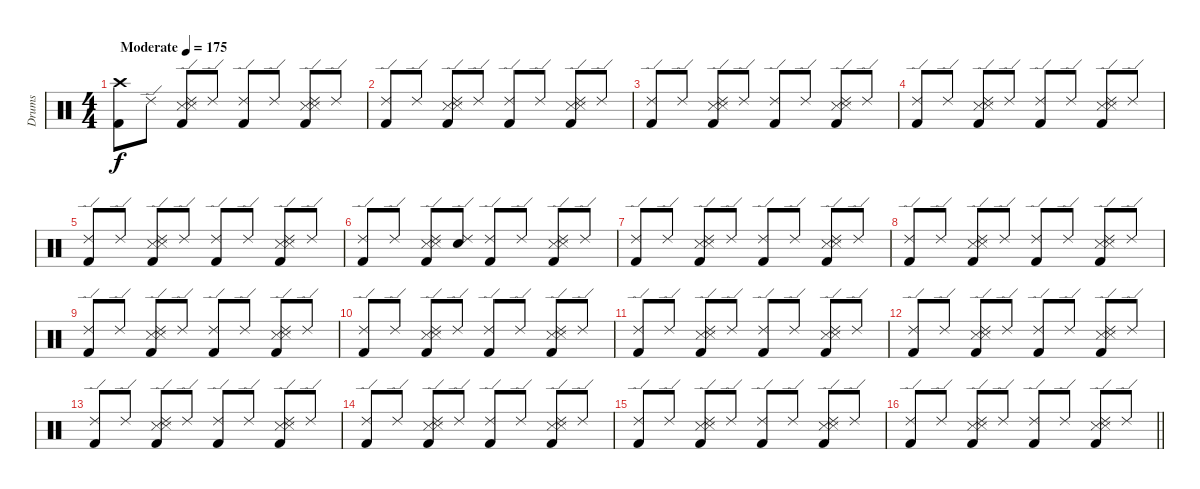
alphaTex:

\track ("Drums" "Drums") {instrument percussion}
\staff {score}
\articulation defaults
\ts (4 4)
\tempo (175 "Moderate")
\clef neutral
\ks c
("Crash high (hit)" "Kick (hit) 2").8{dy f} "Ride (edge) 2".8 ("Ride (edge) 2" "Snare (side stick) 3" "Snare (side stick) 3" "Kick (hit) 2").8 "Ride (edge) 2".8 ("Ride (edge) 2" "Kick (hit) 2").8 "Ride (edge) 2".8 ("Ride (edge) 2" "Snare (side stick) 3" "Snare (side stick) 3" "Kick (hit) 2").8 "Ride (edge) 2".8 |
("Ride (edge) 2" "Kick (hit) 2").8 "Ride (edge) 2".8 ("Ride (edge) 2" "Snare (side stick) 3" "Snare (side stick) 3" "Kick (hit) 2").8 "Ride (edge) 2".8 ("Ride (edge) 2" "Kick (hit) 2").8 "Ride (edge) 2".8 ("Ride (edge) 2" "Snare (side stick) 3" "Snare (side stick) 3" "Kick (hit) 2").8 "Ride (edge) 2".8 |
("Ride (edge) 2" "Kick (hit) 2").8 "Ride (edge) 2".8 ("Ride (edge) 2" "Snare (side stick) 3" "Snare (side stick) 3" "Kick (hit) 2").8 "Ride (edge) 2".8 ("Ride (edge) 2" "Kick (hit) 2").8 "Ride (edge) 2".8 ("Ride (edge) 2" "Snare (side stick) 3" "Snare (side stick) 3" "Kick (hit) 2").8 "Ride (edge) 2".8 |
("Ride (edge) 2" "Kick (hit) 2").8 "Ride (edge) 2".8 ("Ride (edge) 2" "Snare (side stick) 3" "Snare (side stick) 3" "Kick (hit) 2").8 "Ride (edge) 2".8 ("Ride (edge) 2" "Kick (hit) 2").8 "Ride (edge) 2".8 ("Ride (edge) 2" "Snare (side stick) 3" "Snare (side stick) 3" "Kick (hit) 2").8 "Ride (edge) 2".8 |
("Ride (edge) 2" "Kick (hit) 2").8 "Ride (edge) 2".8 ("Ride (edge) 2" "Snare (side stick) 3" "Snare (side stick) 3" "Kick (hit) 2").8 "Ride (edge) 2".8 ("Ride (edge) 2" "Kick (hit) 2").8 "Ride (edge) 2".8 ("Ride (edge) 2" "Snare (side stick) 3" "Snare (side stick) 3" "Kick (hit) 2").8 "Ride (edge) 2".8 |
("Ride (edge) 2" "Kick (hit) 2").8 "Ride (edge) 2".8 ("Ride (edge) 2" "Snare (side stick) 3" "Snare (side stick) 3" "Kick (hit) 2").8 ("Ride (edge) 2" "Snare (hit)").8 ("Ride (edge) 2" "Kick (hit) 2").8 "Ride (edge) 2".8 ("Ride (edge) 2" "Snare (side stick) 3" "Snare (side stick) 3" "Kick (hit) 2").8 "Ride (edge) 2".8 |
("Ride (edge) 2" "Kick (hit) 2").8 "Ride (edge) 2".8 ("Ride (edge) 2" "Snare (side stick) 3" "Snare (side stick) 3" "Kick (hit) 2").8 "Ride (edge) 2".8 ("Ride (edge) 2" "Kick (hit) 2").8 "Ride (edge) 2".8 ("Ride (edge) 2" "Snare (side stick) 3" "Snare (side stick) 3" "Kick (hit) 2").8 "Ride (edge) 2".8 |
("Ride (edge) 2" "Kick (hit) 2").8 "Ride (edge) 2".8 ("Ride (edge) 2" "Snare (side stick) 3" "Snare (side stick) 3" "Kick (hit) 2").8 "Ride (edge) 2".8 ("Ride (edge) 2" "Kick (hit) 2").8 "Ride (edge) 2".8 ("Ride (edge) 2" "Snare (side stick) 3" "Snare (side stick) 3" "Kick (hit) 2").8 "Ride (edge) 2".8 |
("Ride (edge) 2" "Kick (hit) 2").8 "Ride (edge) 2".8 ("Ride (edge) 2" "Snare (side stick) 3" "Snare (side stick) 3" "Kick (hit) 2").8 "Ride (edge) 2".8 ("Ride (edge) 2" "Kick (hit) 2").8 "Ride (edge) 2".8 ("Ride (edge) 2" "Snare (side stick) 3" "Snare (side stick) 3" "Kick (hit) 2").8 "Ride (edge) 2".8 |
("Ride (edge) 2" "Kick (hit) 2").8 "Ride (edge) 2".8 ("Ride (edge) 2" "Snare (side stick) 3" "Snare (side stick) 3" "Kick (hit) 2").8 "Ride (edge) 2".8 ("Ride (edge) 2" "Kick (hit) 2").8 "Ride (edge) 2".8 ("Ride (edge) 2" "Snare (side stick) 3" "Snare (side stick) 3" "Kick (hit) 2").8 "Ride (edge) 2".8 |
("Ride (edge) 2" "Kick (hit) 2").8 "Ride (edge) 2".8 ("Ride (edge) 2" "Snare (side stick) 3" "Snare (side stick) 3" "Kick (hit) 2").8 "Ride (edge) 2".8 ("Ride (edge) 2" "Kick (hit) 2").8 "Ride (edge) 2".8 ("Ride (edge) 2" "Snare (side stick) 3" "Snare (side stick) 3" "Kick (hit) 2").8 "Ride (edge) 2".8 |
("Ride (edge) 2" "Kick (hit) 2").8 "Ride (edge) 2".8 ("Ride (edge) 2" "Snare (side stick) 3" "Snare (side stick) 3" "Kick (hit) 2").8 "Ride (edge) 2".8 ("Ride (edge) 2" "Kick (hit) 2").8 "Ride (edge) 2".8 ("Ride (edge) 2" "Snare (side stick) 3" "Snare (side stick) 3" "Kick (hit) 2").8 "Ride (edge) 2".8 |
("Ride (edge) 2" "Kick (hit) 2").8 "Ride (edge) 2".8 ("Ride (edge) 2" "Snare (side stick) 3" "Snare (side stick) 3" "Kick (hit) 2").8 "Ride (edge) 2".8 ("Ride (edge) 2" "Kick (hit) 2").8 "Ride (edge) 2".8 ("Ride (edge) 2" "Snare (side stick) 3" "Snare (side stick) 3" "Kick (hit) 2").8 "Ride (edge) 2".8 |
("Ride (edge) 2" "Kick (hit) 2").8 "Ride (edge) 2".8 ("Ride (edge) 2" "Snare (side stick) 3" "Snare (side stick) 3" "Kick (hit) 2").8 "Ride (edge) 2".8 ("Ride (edge) 2" "Kick (hit) 2").8 "Ride (edge) 2".8 ("Ride (edge) 2" "Snare (side stick) 3" "Snare (side stick) 3" "Kick (hit) 2").8 "Ride (edge) 2".8 |
("Ride (edge) 2" "Kick (hit) 2").8 "Ride (edge) 2".8 ("Ride (edge) 2" "Snare (side stick) 3" "Snare (side stick) 3" "Kick (hit) 2").8 "Ride (edge) 2".8 ("Ride (edge) 2" "Kick (hit) 2").8 "Ride (edge) 2".8 ("Ride (edge) 2" "Snare (side stick) 3" "Snare (side stick) 3" "Kick (hit) 2").8 "Ride (edge) 2".8 |
\barLineRight lightlight
("Ride (edge) 2" "Kick (hit) 2").8 "Ride (edge) 2".8 ("Ride (edge) 2" "Snare (side stick) 3" "Snare (side stick) 3" "Kick (hit) 2").8 "Ride (edge) 2".8 ("Ride (edge) 2" "Kick (hit) 2").8 "Ride (edge) 2".8 ("Ride (edge) 2" "Snare (side stick) 3" "Snare (side stick) 3" "Kick (hit) 2").8 "Ride (edge) 2".8
